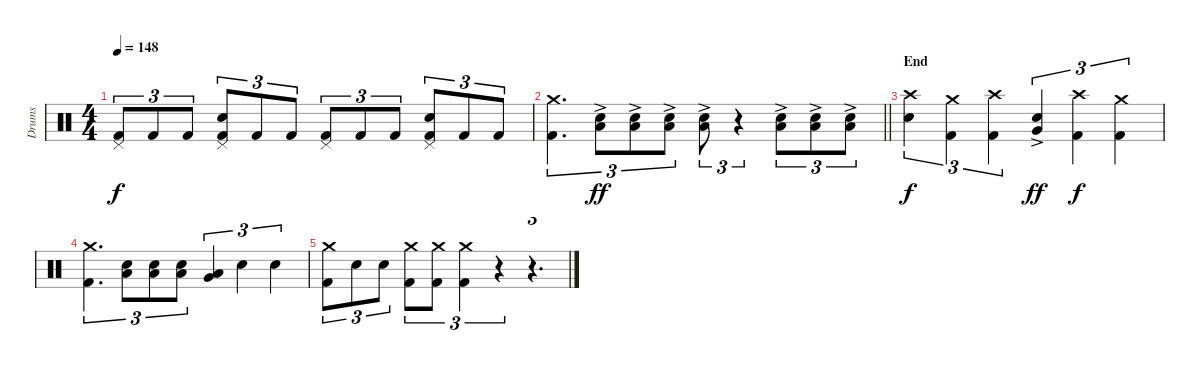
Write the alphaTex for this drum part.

\track ("Drums" "Drums") {instrument percussion}
\staff {score}
\articulation defaults
\ts (4 4)
\tempo 148
\clef neutral
\ks c
("Kick (hit) 2" "Pedal Hi-Hat (hit)").8{tu (3 2) dy f} "Kick (hit) 2".8{tu (3 2)} "Kick (hit) 2".8{tu (3 2)} ("Kick (hit) 2" "Snare (hit) 2" "Pedal Hi-Hat (hit)").8{tu (3 2)} "Kick (hit) 2".8{tu (3 2)} "Kick (hit) 2".8{tu (3 2)} ("Kick (hit) 2" "Pedal Hi-Hat (hit)").8{tu (3 2)} "Kick (hit) 2".8{tu (3 2)} "Kick (hit) 2".8{tu (3 2)} ("Kick (hit) 2" "Snare (hit) 2" "Pedal Hi-Hat (hit)").8{tu (3 2)} "Kick (hit) 2".8{tu (3 2)} "Kick (hit) 2".8{tu (3 2)} |
\barLineRight lightlight
("Kick (hit) 2" "Crash medium (hit)").4{d tu (3 2)} ("Snare (hit) 2" "Low Tom (hit)"{ac}).8{tu (3 2) dy ff} ("Snare (hit) 2" "Low Tom (hit)"{ac}).8{tu (3 2)} ("Snare (hit) 2" "Low Tom (hit)"{ac}).8{tu (3 2)} ("Snare (hit) 2" "Low Tom (hit)"{ac}).8{tu (3 2)} r.4{tu (3 2)} ("Snare (hit) 2" "Low Tom (hit)"{ac}).8{tu (3 2)} ("Snare (hit) 2" "Low Tom (hit)"{ac}).8{tu (3 2)} ("Snare (hit) 2" "Low Tom (hit)"{ac}).8{tu (3 2)} |
\section ("" "End")
("Snare (hit) 2" "Crash high (hit)").4{tu (3 2) dy f} ("Kick (hit) 2" "Crash medium (hit)").4{tu (3 2)} ("Kick (hit) 2" "Crash high (hit)").4{tu (3 2)} ("Snare (hit) 2" "Very Low Tom (hit)"{ac}).4{tu (3 2) dy ff} ("Kick (hit) 2" "Crash high (hit)").4{tu (3 2) dy f} ("Kick (hit) 2" "Crash medium (hit)").4{tu (3 2)} |
("Kick (hit) 2" "Crash medium (hit)").4{d tu (3 2)} ("Snare (hit) 2" "Low Tom (hit)").8{tu (3 2)} ("Snare (hit) 2" "Low Tom (hit)").8{tu (3 2)} ("Snare (hit) 2" "Low Tom (hit)").8{tu (3 2)} ("Very Low Tom (hit)" "Low Tom (hit)").4{tu (3 2)} "Snare (hit) 2".4{tu (3 2)} "Snare (hit) 2".4{tu (3 2)} |
("Kick (hit) 2" "Crash medium (hit)").8{tu (3 2)} "Snare (hit) 2".8{tu (3 2)} "Snare (hit) 2".8{tu (3 2)} ("Kick (hit) 2" "Crash medium (hit)").8{tu (3 2)} ("Kick (hit) 2" "Crash medium (hit)").8{tu (3 2)} ("Kick (hit) 2" "Crash medium (hit)").4{tu (3 2)} r.4{tu (3 2)} r.4{d tu (3 2)}
